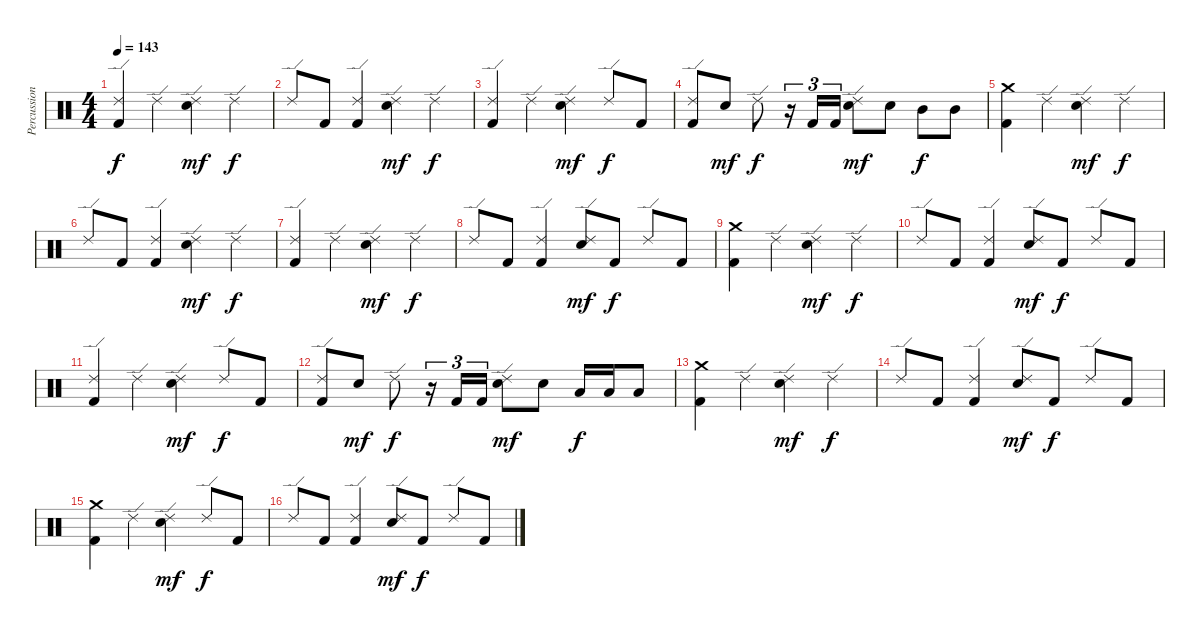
\track ("Percussion" "Percussion") {instrument percussion}
\staff {score}
\articulation defaults
\ts (4 4)
\tempo 143
\clef neutral
\ks c
("Ride (edge) 2" "Kick (hit) 2").4{dy f} "Ride (edge) 2".4 ("Ride (edge) 2" "Electric Snare (hit)").4{dy mf} "Ride (edge) 2".4{dy f} |
"Ride (edge) 2".8 "Kick (hit) 2".8 ("Ride (edge) 2" "Kick (hit) 2").4 ("Ride (edge) 2" "Electric Snare (hit)").4{dy mf} "Ride (edge) 2".4{dy f} |
("Ride (edge) 2" "Kick (hit) 2").4 "Ride (edge) 2".4 ("Ride (edge) 2" "Electric Snare (hit)").4{dy mf} "Ride (edge) 2".8{dy f} "Kick (hit) 2".8 |
("Ride (edge) 2" "Kick (hit) 2").8 "Electric Snare (hit)".8{dy mf} "Ride (edge) 2".8{dy f} r.16{tu (3 2)} "Kick (hit) 2".16{tu (3 2)} "Kick (hit) 2".16{tu (3 2)} ("Ride (edge) 2" "Electric Snare (hit)").8{dy mf} "Electric Snare (hit)".8 "Mid Tom (hit)".8{dy f} "Mid Tom (hit)".8 |
("Crash medium (hit)" "Kick (hit) 2").4 "Ride (edge) 2".4 ("Ride (edge) 2" "Electric Snare (hit)").4{dy mf} "Ride (edge) 2".4{dy f} |
"Ride (edge) 2".8 "Kick (hit) 2".8 ("Ride (edge) 2" "Kick (hit) 2").4 ("Ride (edge) 2" "Electric Snare (hit)").4{dy mf} "Ride (edge) 2".4{dy f} |
("Ride (edge) 2" "Kick (hit) 2").4 "Ride (edge) 2".4 ("Ride (edge) 2" "Electric Snare (hit)").4{dy mf} "Ride (edge) 2".4{dy f} |
"Ride (edge) 2".8 "Kick (hit) 2".8 ("Ride (edge) 2" "Kick (hit) 2").4 ("Ride (edge) 2" "Electric Snare (hit)").8{dy mf} "Kick (hit) 2".8{dy f} "Ride (edge) 2".8 "Kick (hit) 2".8 |
("Crash medium (hit)" "Kick (hit) 2").4 "Ride (edge) 2".4 ("Ride (edge) 2" "Electric Snare (hit)").4{dy mf} "Ride (edge) 2".4{dy f} |
"Ride (edge) 2".8 "Kick (hit) 2".8 ("Ride (edge) 2" "Kick (hit) 2").4 ("Ride (edge) 2" "Electric Snare (hit)").8{dy mf} "Kick (hit) 2".8{dy f} "Ride (edge) 2".8 "Kick (hit) 2".8 |
("Ride (edge) 2" "Kick (hit) 2").4 "Ride (edge) 2".4 ("Ride (edge) 2" "Electric Snare (hit)").4{dy mf} "Ride (edge) 2".8{dy f} "Kick (hit) 2".8 |
("Ride (edge) 2" "Kick (hit) 2").8 "Electric Snare (hit)".8{dy mf} "Ride (edge) 2".8{dy f} r.16{tu (3 2)} "Kick (hit) 2".16{tu (3 2)} "Kick (hit) 2".16{tu (3 2)} ("Ride (edge) 2" "Electric Snare (hit)").8{dy mf} "Electric Snare (hit)".8 "Low Tom (hit)".16{dy f} "Low Tom (hit)".16 "Low Tom (hit)".8 |
("Crash medium (hit)" "Kick (hit) 2").4 "Ride (edge) 2".4 ("Ride (edge) 2" "Electric Snare (hit)").4{dy mf} "Ride (edge) 2".4{dy f} |
"Ride (edge) 2".8 "Kick (hit) 2".8 ("Ride (edge) 2" "Kick (hit) 2").4 ("Ride (edge) 2" "Electric Snare (hit)").8{dy mf} "Kick (hit) 2".8{dy f} "Ride (edge) 2".8 "Kick (hit) 2".8 |
("Crash medium (hit)" "Kick (hit) 2").4 "Ride (edge) 2".4 ("Ride (edge) 2" "Electric Snare (hit)").4{dy mf} "Ride (edge) 2".8{dy f} "Kick (hit) 2".8 |
"Ride (edge) 2".8 "Kick (hit) 2".8 ("Ride (edge) 2" "Kick (hit) 2").4 ("Ride (edge) 2" "Electric Snare (hit)").8{dy mf} "Kick (hit) 2".8{dy f} "Ride (edge) 2".8 "Kick (hit) 2".8
